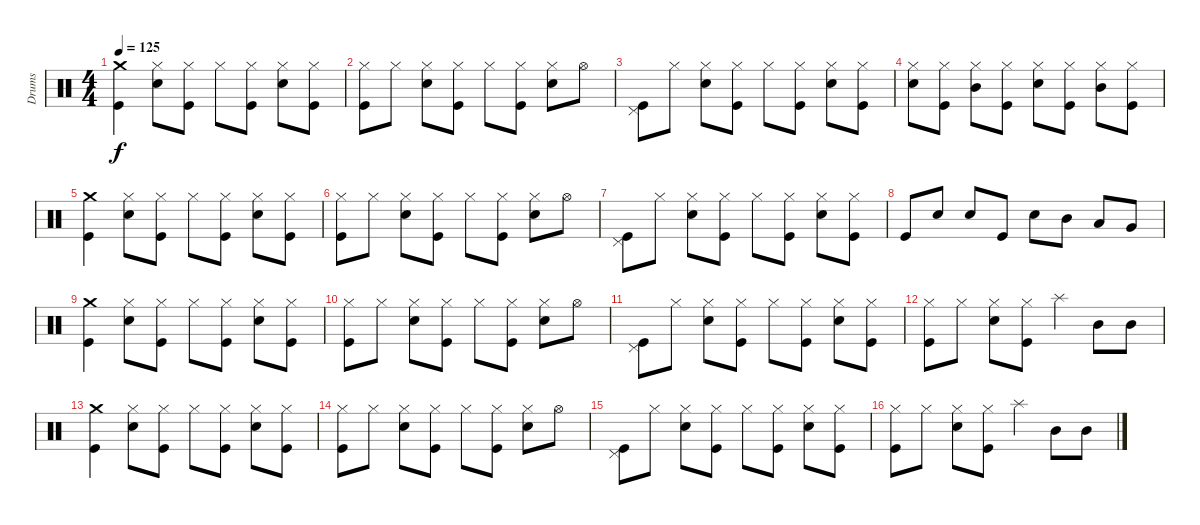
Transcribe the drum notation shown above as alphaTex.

\track ("Drums" "Drums") {instrument percussion}
\staff {score}
\articulation defaults
\ts (4 4)
\tempo 125
\clef neutral
\ks c
("Crash medium (hit)" "Kick (hit)").4{dy f} ("Hi-Hat (closed)" "Snare (hit) 2").8 ("Hi-Hat (closed)" "Kick (hit)").8 "Hi-Hat (closed)".8 ("Hi-Hat (closed)" "Kick (hit)").8 ("Hi-Hat (closed)" "Snare (hit) 2").8 ("Hi-Hat (closed)" "Kick (hit)").8 |
("Hi-Hat (closed)" "Kick (hit)").8 "Hi-Hat (closed)".8 ("Hi-Hat (closed)" "Snare (hit) 2").8 ("Hi-Hat (closed)" "Kick (hit)").8 "Hi-Hat (closed)".8 ("Hi-Hat (closed)" "Kick (hit)").8 ("Hi-Hat (closed)" "Snare (hit) 2").8 "Hi-Hat (open)".8 |
("Pedal Hi-Hat (hit)" "Kick (hit)").8 "Hi-Hat (closed)".8 ("Hi-Hat (closed)" "Snare (hit) 2").8 ("Hi-Hat (closed)" "Kick (hit)").8 "Hi-Hat (closed)".8 ("Hi-Hat (closed)" "Kick (hit)").8 ("Hi-Hat (closed)" "Snare (hit) 2").8 ("Hi-Hat (closed)" "Kick (hit)").8 |
("Hi-Hat (closed)" "Snare (hit) 2").8 ("Hi-Hat (closed)" "Kick (hit)").8 ("Hi-Hat (closed)" "Mid Tom (hit)").8 ("Hi-Hat (closed)" "Kick (hit)").8 ("Hi-Hat (closed)" "Snare (hit) 2").8 ("Hi-Hat (closed)" "Kick (hit)").8 ("Hi-Hat (closed)" "Mid Tom (hit)").8 ("Hi-Hat (closed)" "Kick (hit)").8 |
("Crash medium (hit)" "Kick (hit)").4 ("Hi-Hat (closed)" "Snare (hit) 2").8 ("Hi-Hat (closed)" "Kick (hit)").8 "Hi-Hat (closed)".8 ("Hi-Hat (closed)" "Kick (hit)").8 ("Hi-Hat (closed)" "Snare (hit) 2").8 ("Hi-Hat (closed)" "Kick (hit)").8 |
("Hi-Hat (closed)" "Kick (hit)").8 "Hi-Hat (closed)".8 ("Hi-Hat (closed)" "Snare (hit) 2").8 ("Hi-Hat (closed)" "Kick (hit)").8 "Hi-Hat (closed)".8 ("Hi-Hat (closed)" "Kick (hit)").8 ("Hi-Hat (closed)" "Snare (hit) 2").8 "Hi-Hat (open)".8 |
("Pedal Hi-Hat (hit)" "Kick (hit)").8 "Hi-Hat (closed)".8 ("Hi-Hat (closed)" "Snare (hit) 2").8 ("Hi-Hat (closed)" "Kick (hit)").8 "Hi-Hat (closed)".8 ("Hi-Hat (closed)" "Kick (hit)").8 ("Hi-Hat (closed)" "Snare (hit) 2").8 ("Hi-Hat (closed)" "Kick (hit)").8 |
"Kick (hit)".8 "Snare (hit) 2".8 "Snare (hit) 2".8 "Kick (hit)".8 "Snare (hit) 2".8 "Mid Tom (hit)".8 "Low Tom (hit)".8 "Very Low Tom (hit)".8 |
("Crash medium (hit)" "Kick (hit)").4 ("Hi-Hat (closed)" "Snare (hit) 2").8 ("Hi-Hat (closed)" "Kick (hit)").8 "Hi-Hat (closed)".8 ("Hi-Hat (closed)" "Kick (hit)").8 ("Hi-Hat (closed)" "Snare (hit) 2").8 ("Hi-Hat (closed)" "Kick (hit)").8 |
("Hi-Hat (closed)" "Kick (hit)").8 "Hi-Hat (closed)".8 ("Hi-Hat (closed)" "Snare (hit) 2").8 ("Hi-Hat (closed)" "Kick (hit)").8 "Hi-Hat (closed)".8 ("Hi-Hat (closed)" "Kick (hit)").8 ("Hi-Hat (closed)" "Snare (hit) 2").8 "Hi-Hat (open)".8 |
("Pedal Hi-Hat (hit)" "Kick (hit)").8 "Hi-Hat (closed)".8 ("Hi-Hat (closed)" "Snare (hit) 2").8 ("Hi-Hat (closed)" "Kick (hit)").8 "Hi-Hat (closed)".8 ("Hi-Hat (closed)" "Kick (hit)").8 ("Hi-Hat (closed)" "Snare (hit) 2").8 ("Hi-Hat (closed)" "Kick (hit)").8 |
("Hi-Hat (closed)" "Kick (hit)").8 "Hi-Hat (closed)".8 ("Hi-Hat (closed)" "Snare (hit) 2").8 ("Hi-Hat (closed)" "Kick (hit)").8 "Splash (hit)".4 "Mid Tom (hit)".8 "Mid Tom (hit)".8 |
("Crash medium (hit)" "Kick (hit)").4 ("Hi-Hat (closed)" "Snare (hit) 2").8 ("Hi-Hat (closed)" "Kick (hit)").8 "Hi-Hat (closed)".8 ("Hi-Hat (closed)" "Kick (hit)").8 ("Hi-Hat (closed)" "Snare (hit) 2").8 ("Hi-Hat (closed)" "Kick (hit)").8 |
("Hi-Hat (closed)" "Kick (hit)").8 "Hi-Hat (closed)".8 ("Hi-Hat (closed)" "Snare (hit) 2").8 ("Hi-Hat (closed)" "Kick (hit)").8 "Hi-Hat (closed)".8 ("Hi-Hat (closed)" "Kick (hit)").8 ("Hi-Hat (closed)" "Snare (hit) 2").8 "Hi-Hat (open)".8 |
("Pedal Hi-Hat (hit)" "Kick (hit)").8 "Hi-Hat (closed)".8 ("Hi-Hat (closed)" "Snare (hit) 2").8 ("Hi-Hat (closed)" "Kick (hit)").8 "Hi-Hat (closed)".8 ("Hi-Hat (closed)" "Kick (hit)").8 ("Hi-Hat (closed)" "Snare (hit) 2").8 ("Hi-Hat (closed)" "Kick (hit)").8 |
("Hi-Hat (closed)" "Kick (hit)").8 "Hi-Hat (closed)".8 ("Hi-Hat (closed)" "Snare (hit) 2").8 ("Hi-Hat (closed)" "Kick (hit)").8 "Splash (hit)".4 "Mid Tom (hit)".8 "Mid Tom (hit)".8
